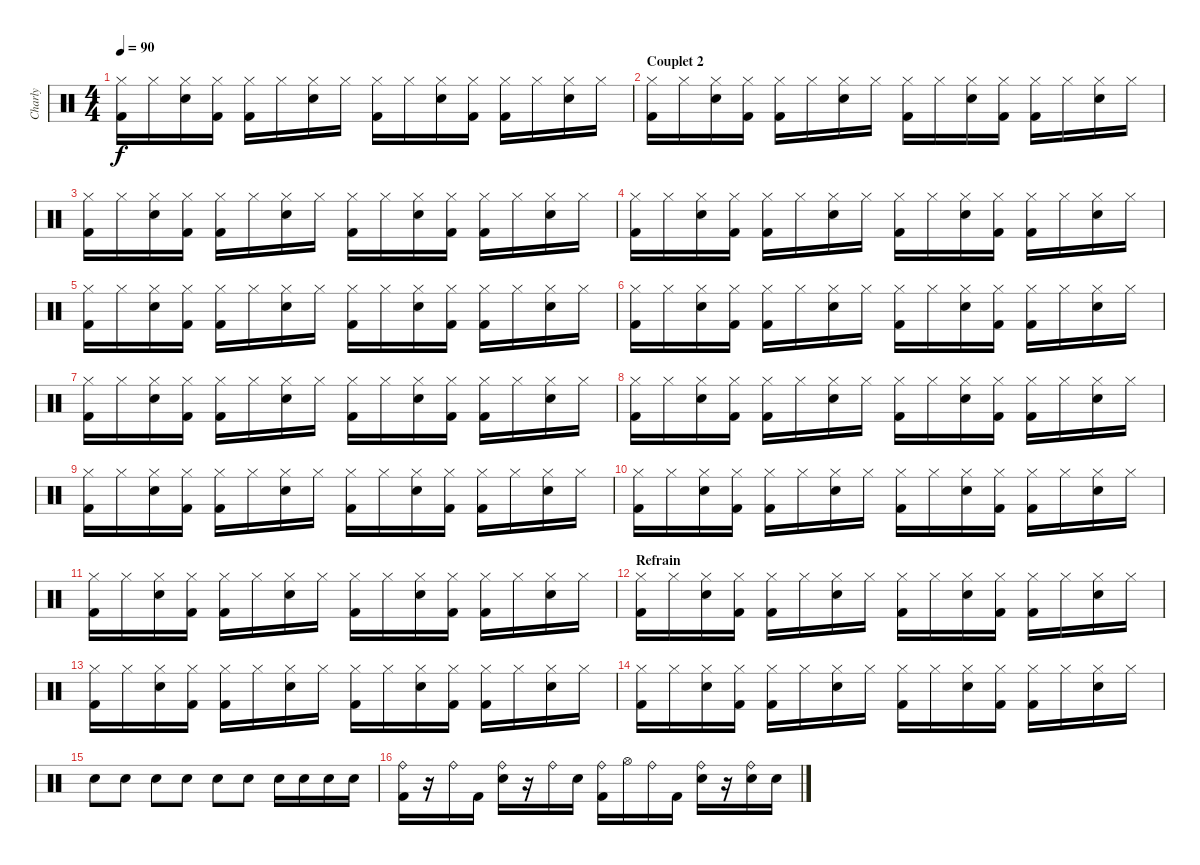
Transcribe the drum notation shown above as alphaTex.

\track ("Charly" "Charly") {instrument percussion}
\staff {score}
\articulation defaults
\ts (4 4)
\tempo 90
\clef neutral
\ks c
("Hi-Hat (closed)" "Kick (hit) 2").16{dy f} "Hi-Hat (closed)".16 ("Hi-Hat (closed)" "Electric Snare (hit)").16 ("Hi-Hat (closed)" "Kick (hit) 2").16 ("Hi-Hat (closed)" "Kick (hit) 2").16 "Hi-Hat (closed)".16 ("Hi-Hat (closed)" "Electric Snare (hit)").16 "Hi-Hat (closed)".16 ("Hi-Hat (closed)" "Kick (hit) 2").16 "Hi-Hat (closed)".16 ("Hi-Hat (closed)" "Electric Snare (hit)").16 ("Hi-Hat (closed)" "Kick (hit) 2").16 ("Hi-Hat (closed)" "Kick (hit) 2").16 "Hi-Hat (closed)".16 ("Hi-Hat (closed)" "Electric Snare (hit)").16 "Hi-Hat (closed)".16 |
\section ("" "Couplet 2")
("Hi-Hat (closed)" "Kick (hit) 2").16 "Hi-Hat (closed)".16 ("Hi-Hat (closed)" "Electric Snare (hit)").16 ("Hi-Hat (closed)" "Kick (hit) 2").16 ("Hi-Hat (closed)" "Kick (hit) 2").16 "Hi-Hat (closed)".16 ("Hi-Hat (closed)" "Electric Snare (hit)").16 "Hi-Hat (closed)".16 ("Hi-Hat (closed)" "Kick (hit) 2").16 "Hi-Hat (closed)".16 ("Hi-Hat (closed)" "Electric Snare (hit)").16 ("Hi-Hat (closed)" "Kick (hit) 2").16 ("Hi-Hat (closed)" "Kick (hit) 2").16 "Hi-Hat (closed)".16 ("Hi-Hat (closed)" "Electric Snare (hit)").16 "Hi-Hat (closed)".16 |
("Hi-Hat (closed)" "Kick (hit) 2").16 "Hi-Hat (closed)".16 ("Hi-Hat (closed)" "Electric Snare (hit)").16 ("Hi-Hat (closed)" "Kick (hit) 2").16 ("Hi-Hat (closed)" "Kick (hit) 2").16 "Hi-Hat (closed)".16 ("Hi-Hat (closed)" "Electric Snare (hit)").16 "Hi-Hat (closed)".16 ("Hi-Hat (closed)" "Kick (hit) 2").16 "Hi-Hat (closed)".16 ("Hi-Hat (closed)" "Electric Snare (hit)").16 ("Hi-Hat (closed)" "Kick (hit) 2").16 ("Hi-Hat (closed)" "Kick (hit) 2").16 "Hi-Hat (closed)".16 ("Hi-Hat (closed)" "Electric Snare (hit)").16 "Hi-Hat (closed)".16 |
("Hi-Hat (closed)" "Kick (hit) 2").16 "Hi-Hat (closed)".16 ("Hi-Hat (closed)" "Electric Snare (hit)").16 ("Hi-Hat (closed)" "Kick (hit) 2").16 ("Hi-Hat (closed)" "Kick (hit) 2").16 "Hi-Hat (closed)".16 ("Hi-Hat (closed)" "Electric Snare (hit)").16 "Hi-Hat (closed)".16 ("Hi-Hat (closed)" "Kick (hit) 2").16 "Hi-Hat (closed)".16 ("Hi-Hat (closed)" "Electric Snare (hit)").16 ("Hi-Hat (closed)" "Kick (hit) 2").16 ("Hi-Hat (closed)" "Kick (hit) 2").16 "Hi-Hat (closed)".16 ("Hi-Hat (closed)" "Electric Snare (hit)").16 "Hi-Hat (closed)".16 |
("Hi-Hat (closed)" "Kick (hit) 2").16 "Hi-Hat (closed)".16 ("Hi-Hat (closed)" "Electric Snare (hit)").16 ("Hi-Hat (closed)" "Kick (hit) 2").16 ("Hi-Hat (closed)" "Kick (hit) 2").16 "Hi-Hat (closed)".16 ("Hi-Hat (closed)" "Electric Snare (hit)").16 "Hi-Hat (closed)".16 ("Hi-Hat (closed)" "Kick (hit) 2").16 "Hi-Hat (closed)".16 ("Hi-Hat (closed)" "Electric Snare (hit)").16 ("Hi-Hat (closed)" "Kick (hit) 2").16 ("Hi-Hat (closed)" "Kick (hit) 2").16 "Hi-Hat (closed)".16 ("Hi-Hat (closed)" "Electric Snare (hit)").16 "Hi-Hat (closed)".16 |
("Hi-Hat (closed)" "Kick (hit) 2").16 "Hi-Hat (closed)".16 ("Hi-Hat (closed)" "Electric Snare (hit)").16 ("Hi-Hat (closed)" "Kick (hit) 2").16 ("Hi-Hat (closed)" "Kick (hit) 2").16 "Hi-Hat (closed)".16 ("Hi-Hat (closed)" "Electric Snare (hit)").16 "Hi-Hat (closed)".16 ("Hi-Hat (closed)" "Kick (hit) 2").16 "Hi-Hat (closed)".16 ("Hi-Hat (closed)" "Electric Snare (hit)").16 ("Hi-Hat (closed)" "Kick (hit) 2").16 ("Hi-Hat (closed)" "Kick (hit) 2").16 "Hi-Hat (closed)".16 ("Hi-Hat (closed)" "Electric Snare (hit)").16 "Hi-Hat (closed)".16 |
("Hi-Hat (closed)" "Kick (hit) 2").16 "Hi-Hat (closed)".16 ("Hi-Hat (closed)" "Electric Snare (hit)").16 ("Hi-Hat (closed)" "Kick (hit) 2").16 ("Hi-Hat (closed)" "Kick (hit) 2").16 "Hi-Hat (closed)".16 ("Hi-Hat (closed)" "Electric Snare (hit)").16 "Hi-Hat (closed)".16 ("Hi-Hat (closed)" "Kick (hit) 2").16 "Hi-Hat (closed)".16 ("Hi-Hat (closed)" "Electric Snare (hit)").16 ("Hi-Hat (closed)" "Kick (hit) 2").16 ("Hi-Hat (closed)" "Kick (hit) 2").16 "Hi-Hat (closed)".16 ("Hi-Hat (closed)" "Electric Snare (hit)").16 "Hi-Hat (closed)".16 |
("Hi-Hat (closed)" "Kick (hit) 2").16 "Hi-Hat (closed)".16 ("Hi-Hat (closed)" "Electric Snare (hit)").16 ("Hi-Hat (closed)" "Kick (hit) 2").16 ("Hi-Hat (closed)" "Kick (hit) 2").16 "Hi-Hat (closed)".16 ("Hi-Hat (closed)" "Electric Snare (hit)").16 "Hi-Hat (closed)".16 ("Hi-Hat (closed)" "Kick (hit) 2").16 "Hi-Hat (closed)".16 ("Hi-Hat (closed)" "Electric Snare (hit)").16 ("Hi-Hat (closed)" "Kick (hit) 2").16 ("Hi-Hat (closed)" "Kick (hit) 2").16 "Hi-Hat (closed)".16 ("Hi-Hat (closed)" "Electric Snare (hit)").16 "Hi-Hat (closed)".16 |
("Hi-Hat (closed)" "Kick (hit) 2").16 "Hi-Hat (closed)".16 ("Hi-Hat (closed)" "Electric Snare (hit)").16 ("Hi-Hat (closed)" "Kick (hit) 2").16 ("Hi-Hat (closed)" "Kick (hit) 2").16 "Hi-Hat (closed)".16 ("Hi-Hat (closed)" "Electric Snare (hit)").16 "Hi-Hat (closed)".16 ("Hi-Hat (closed)" "Kick (hit) 2").16 "Hi-Hat (closed)".16 ("Hi-Hat (closed)" "Electric Snare (hit)").16 ("Hi-Hat (closed)" "Kick (hit) 2").16 ("Hi-Hat (closed)" "Kick (hit) 2").16 "Hi-Hat (closed)".16 ("Hi-Hat (closed)" "Electric Snare (hit)").16 "Hi-Hat (closed)".16 |
("Hi-Hat (closed)" "Kick (hit) 2").16 "Hi-Hat (closed)".16 ("Hi-Hat (closed)" "Electric Snare (hit)").16 ("Hi-Hat (closed)" "Kick (hit) 2").16 ("Hi-Hat (closed)" "Kick (hit) 2").16 "Hi-Hat (closed)".16 ("Hi-Hat (closed)" "Electric Snare (hit)").16 "Hi-Hat (closed)".16 ("Hi-Hat (closed)" "Kick (hit) 2").16 "Hi-Hat (closed)".16 ("Hi-Hat (closed)" "Electric Snare (hit)").16 ("Hi-Hat (closed)" "Kick (hit) 2").16 ("Hi-Hat (closed)" "Kick (hit) 2").16 "Hi-Hat (closed)".16 ("Hi-Hat (closed)" "Electric Snare (hit)").16 "Hi-Hat (closed)".16 |
("Hi-Hat (closed)" "Kick (hit) 2").16 "Hi-Hat (closed)".16 ("Hi-Hat (closed)" "Electric Snare (hit)").16 ("Hi-Hat (closed)" "Kick (hit) 2").16 ("Hi-Hat (closed)" "Kick (hit) 2").16 "Hi-Hat (closed)".16 ("Hi-Hat (closed)" "Electric Snare (hit)").16 "Hi-Hat (closed)".16 ("Hi-Hat (closed)" "Kick (hit) 2").16 "Hi-Hat (closed)".16 ("Hi-Hat (closed)" "Electric Snare (hit)").16 ("Hi-Hat (closed)" "Kick (hit) 2").16 ("Hi-Hat (closed)" "Kick (hit) 2").16 "Hi-Hat (closed)".16 ("Hi-Hat (closed)" "Electric Snare (hit)").16 "Hi-Hat (closed)".16 |
\section ("" "Refrain")
("Hi-Hat (closed)" "Kick (hit) 2").16 "Hi-Hat (closed)".16 ("Hi-Hat (closed)" "Electric Snare (hit)").16 ("Hi-Hat (closed)" "Kick (hit) 2").16 ("Hi-Hat (closed)" "Kick (hit) 2").16 "Hi-Hat (closed)".16 ("Hi-Hat (closed)" "Electric Snare (hit)").16 "Hi-Hat (closed)".16 ("Hi-Hat (closed)" "Kick (hit) 2").16 "Hi-Hat (closed)".16 ("Hi-Hat (closed)" "Electric Snare (hit)").16 ("Hi-Hat (closed)" "Kick (hit) 2").16 ("Hi-Hat (closed)" "Kick (hit) 2").16 "Hi-Hat (closed)".16 ("Hi-Hat (closed)" "Electric Snare (hit)").16 "Hi-Hat (closed)".16 |
("Hi-Hat (closed)" "Kick (hit) 2").16 "Hi-Hat (closed)".16 ("Hi-Hat (closed)" "Electric Snare (hit)").16 ("Hi-Hat (closed)" "Kick (hit) 2").16 ("Hi-Hat (closed)" "Kick (hit) 2").16 "Hi-Hat (closed)".16 ("Hi-Hat (closed)" "Electric Snare (hit)").16 "Hi-Hat (closed)".16 ("Hi-Hat (closed)" "Kick (hit) 2").16 "Hi-Hat (closed)".16 ("Hi-Hat (closed)" "Electric Snare (hit)").16 ("Hi-Hat (closed)" "Kick (hit) 2").16 ("Hi-Hat (closed)" "Kick (hit) 2").16 "Hi-Hat (closed)".16 ("Hi-Hat (closed)" "Electric Snare (hit)").16 "Hi-Hat (closed)".16 |
("Hi-Hat (closed)" "Kick (hit) 2").16 "Hi-Hat (closed)".16 ("Hi-Hat (closed)" "Electric Snare (hit)").16 ("Hi-Hat (closed)" "Kick (hit) 2").16 ("Hi-Hat (closed)" "Kick (hit) 2").16 "Hi-Hat (closed)".16 ("Hi-Hat (closed)" "Electric Snare (hit)").16 "Hi-Hat (closed)".16 ("Hi-Hat (closed)" "Kick (hit) 2").16 "Hi-Hat (closed)".16 ("Hi-Hat (closed)" "Electric Snare (hit)").16 ("Hi-Hat (closed)" "Kick (hit) 2").16 ("Hi-Hat (closed)" "Kick (hit) 2").16 "Hi-Hat (closed)".16 ("Hi-Hat (closed)" "Electric Snare (hit)").16 "Hi-Hat (closed)".16 |
"Electric Snare (hit)".8 "Electric Snare (hit)".8 "Electric Snare (hit)".8 "Electric Snare (hit)".8 "Electric Snare (hit)".8 "Electric Snare (hit)".8 "Electric Snare (hit)".16 "Electric Snare (hit)".16 "Electric Snare (hit)".16 "Electric Snare (hit)".16 |
("Ride (bell)" "Kick (hit) 2").16 r.16 "Ride (bell)".16 "Kick (hit) 2".16 ("Ride (bell)" "Electric Snare (hit)").16 r.16 "Ride (bell)".16 "Electric Snare (hit)".16 ("Ride (bell)" "Kick (hit) 2").16 "Hi-Hat (open)".16 "Ride (bell)".16 "Kick (hit) 2".16 ("Ride (bell)" "Electric Snare (hit)").16 r.16 ("Ride (bell)" "Electric Snare (hit)").16 "Electric Snare (hit)".16
